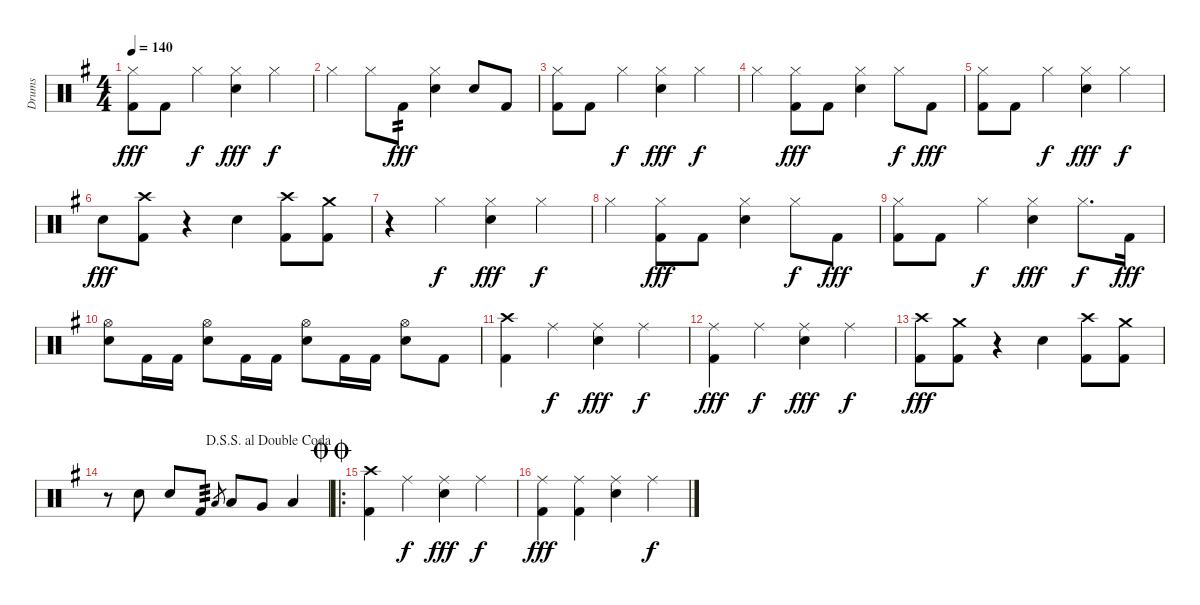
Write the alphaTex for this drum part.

\track ("Drums" "Drums") {instrument percussion}
\staff {score}
\articulation defaults
\ts (4 4)
\tempo 140
\clef neutral
\ks eminor
("Hi-Hat (closed)" "Kick (hit) 2").8{dy fff} "Kick (hit) 2".8 "Hi-Hat (closed)".4{dy f} ("Electric Snare (hit)" "Hi-Hat (closed)").4{dy fff} "Hi-Hat (closed)".4{dy f} |
"Hi-Hat (closed)".4 "Hi-Hat (closed)".8 "Kick (hit) 2".8{tp 2 dy fff} ("Electric Snare (hit)" "Hi-Hat (closed)").4 "Electric Snare (hit)".8 "Kick (hit) 2".8 |
("Hi-Hat (closed)" "Kick (hit) 2").8 "Kick (hit) 2".8 "Hi-Hat (closed)".4{dy f} ("Electric Snare (hit)" "Hi-Hat (closed)").4{dy fff} "Hi-Hat (closed)".4{dy f} |
"Hi-Hat (closed)".4 ("Hi-Hat (closed)" "Kick (hit) 2").8{dy fff} "Kick (hit) 2".8 ("Electric Snare (hit)" "Hi-Hat (closed)").4 "Hi-Hat (closed)".8{dy f} "Kick (hit) 2".8{dy fff} |
("Hi-Hat (closed)" "Kick (hit) 2").8 "Kick (hit) 2".8 "Hi-Hat (closed)".4{dy f} ("Electric Snare (hit)" "Hi-Hat (closed)").4{dy fff} "Hi-Hat (closed)".4{dy f} |
"Electric Snare (hit)".8{dy fff} ("Crash high (hit)" "Kick (hit) 2").8 r.4 "Electric Snare (hit)".4 ("Crash high (hit)" "Kick (hit) 2").8 ("Crash medium (hit)" "Kick (hit) 2").8 |
r.4 "Hi-Hat (closed)".4{dy f} ("Electric Snare (hit)" "Hi-Hat (closed)").4{dy fff} "Hi-Hat (closed)".4{dy f} |
"Hi-Hat (closed)".4 ("Hi-Hat (closed)" "Kick (hit) 2").8{dy fff} "Kick (hit) 2".8 ("Electric Snare (hit)" "Hi-Hat (closed)").4 "Hi-Hat (closed)".8{dy f} "Kick (hit) 2".8{dy fff} |
("Hi-Hat (closed)" "Kick (hit) 2").8 "Kick (hit) 2".8 "Hi-Hat (closed)".4{dy f} ("Electric Snare (hit)" "Hi-Hat (closed)").4{dy fff} "Hi-Hat (closed)".8{d dy f} "Kick (hit) 2".16{dy fff} |
("Electric Snare (hit)" "Hi-Hat (open)").8 "Kick (hit) 2".16 "Kick (hit) 2".16 ("Electric Snare (hit)" "Hi-Hat (open)").8 "Kick (hit) 2".16 "Kick (hit) 2".16 ("Electric Snare (hit)" "Hi-Hat (open)").8 "Kick (hit) 2".16 "Kick (hit) 2".16 ("Electric Snare (hit)" "Hi-Hat (open)").8 "Kick (hit) 2".8 |
("Crash high (hit)" "Kick (hit) 2").4 "Ride (middle)".4{dy f} ("Electric Snare (hit)" "Ride (middle)").4{dy fff} "Ride (middle)".4{dy f} |
("Ride (middle)" "Kick (hit) 2").4{dy fff} "Ride (middle)".4{dy f} ("Electric Snare (hit)" "Ride (middle)").4{dy fff} "Ride (middle)".4{dy f} |
("Crash high (hit)" "Kick (hit) 2").8{dy fff} ("Crash medium (hit)" "Kick (hit) 2").8 r.4 "Electric Snare (hit)".4 ("Crash high (hit)" "Kick (hit) 2").8 ("Crash medium (hit)" "Kick (hit) 2").8 |
\jump dalsegnosegnoaldoublecoda
r.8 "Electric Snare (hit)".8 "Electric Snare (hit)".8 "Kick (hit) 2".8{tp 3} "Low Tom (hit)".8{gr} "Low Tom (hit)".8 "Very Low Tom (hit)".8 "Low Floor Tom (hit)".4 |
\ro
\jump doublecoda
("Crash high (hit)" "Kick (hit) 2").4 "Ride (middle)".4{dy f} ("Electric Snare (hit)" "Ride (middle)").4{dy fff} "Ride (middle)".4{dy f} |
("Ride (middle)" "Kick (hit) 2").4{dy fff} ("Ride (middle)" "Kick (hit) 2").4 ("Electric Snare (hit)" "Ride (middle)").4 "Ride (middle)".4{dy f}
